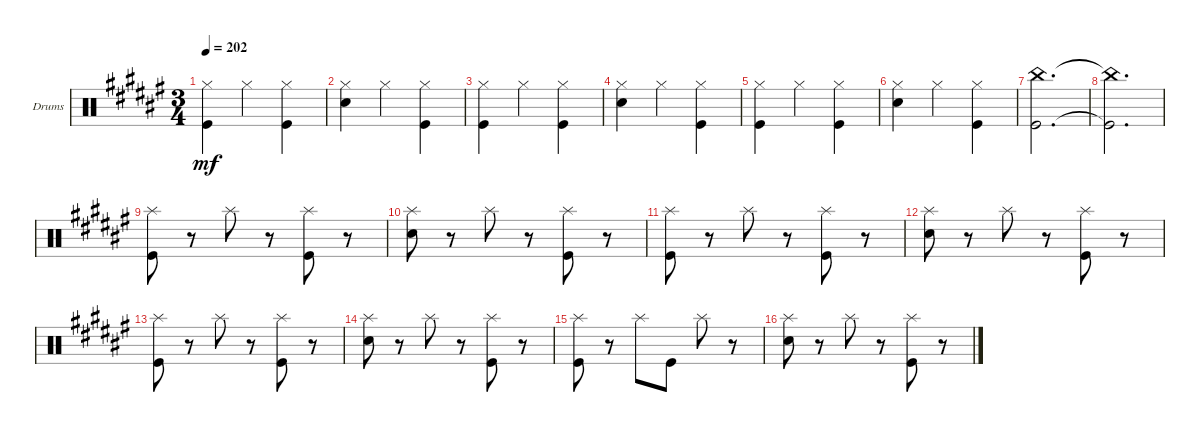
\defaultSystemsLayout 4
\bracketExtendMode groupsimilarinstruments
\firstSystemTrackNameOrientation horizontal
\otherSystemsTrackNameOrientation horizontal
\track ("Drumkit" "Drums") {instrument percussion}
\staff {score}
\articulation defaults
\ts (3 4)
\tempo 202
\clef neutral
\ks f#
("Kick (hit)" "Hi-Hat (closed)").4{dy mf} "Hi-Hat (closed)".4 ("Kick (hit)" "Hi-Hat (closed)").4 |
("Snare (hit) 2" "Hi-Hat (closed)").4 "Hi-Hat (closed)".4 ("Kick (hit)" "Hi-Hat (closed)").4 |
("Kick (hit)" "Hi-Hat (closed)").4 "Hi-Hat (closed)".4 ("Kick (hit)" "Hi-Hat (closed)").4 |
("Snare (hit) 2" "Hi-Hat (closed)").4 "Hi-Hat (closed)".4 ("Kick (hit)" "Hi-Hat (closed)").4 |
("Kick (hit)" "Hi-Hat (closed)").4 "Hi-Hat (closed)".4 ("Kick (hit)" "Hi-Hat (closed)").4 |
("Snare (hit) 2" "Hi-Hat (closed)").4 "Hi-Hat (closed)".4 ("Kick (hit)" "Hi-Hat (closed)").4 |
("Kick (hit)" "China (hit)").2{d} |
("Kick (hit)"{t} "China (hit)"{t}).2{d} |
("Kick (hit)" "Splash (hit)").8 r.8 "Splash (hit)".8 r.8 ("Kick (hit)" "Splash (hit)").8 r.8 |
("Snare (hit) 2" "Splash (hit)").8 r.8 "Splash (hit)".8 r.8 ("Kick (hit)" "Splash (hit)").8 r.8 |
("Kick (hit)" "Splash (hit)").8 r.8 "Splash (hit)".8 r.8 ("Kick (hit)" "Splash (hit)").8 r.8 |
("Snare (hit) 2" "Splash (hit)").8 r.8 "Splash (hit)".8 r.8 ("Kick (hit)" "Splash (hit)").8 r.8 |
("Kick (hit)" "Splash (hit)").8 r.8 "Splash (hit)".8 r.8 ("Splash (hit)" "Kick (hit)").8 r.8 |
("Snare (hit) 2" "Splash (hit)").8 r.8 "Splash (hit)".8 r.8 ("Kick (hit)" "Splash (hit)").8 r.8 |
("Kick (hit)" "Splash (hit)").8 r.8 "Splash (hit)".8 "Kick (hit)".8 "Splash (hit)".8 r.8 |
("Snare (hit) 2" "Splash (hit)").8 r.8 "Splash (hit)".8 r.8 ("Kick (hit)" "Splash (hit)").8 r.8
